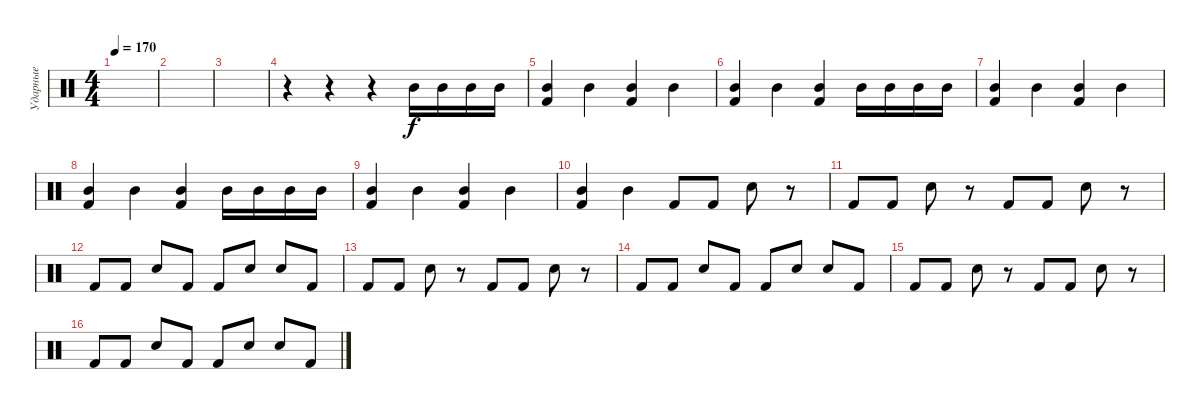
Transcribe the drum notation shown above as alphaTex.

\track ("Ударные" "Ударные") {instrument percussion}
\staff {score}
\articulation defaults
\ts (4 4)
\tempo 170
\clef neutral
\ks c
|
|
|
r.4 r.4 r.4 "Mid Tom (hit)".16 "Mid Tom (hit)".16 "Mid Tom (hit)".16 "Mid Tom (hit)".16 |
("Kick (hit) 2" "Mid Tom (hit)").4 "Mid Tom (hit)".4 ("Kick (hit) 2" "Mid Tom (hit)").4 "Mid Tom (hit)".4 |
("Kick (hit) 2" "Mid Tom (hit)").4 "Mid Tom (hit)".4 ("Kick (hit) 2" "Mid Tom (hit)").4 "Mid Tom (hit)".16 "Mid Tom (hit)".16 "Mid Tom (hit)".16 "Mid Tom (hit)".16 |
("Kick (hit) 2" "Mid Tom (hit)").4 "Mid Tom (hit)".4 ("Kick (hit) 2" "Mid Tom (hit)").4 "Mid Tom (hit)".4 |
("Kick (hit) 2" "Mid Tom (hit)").4 "Mid Tom (hit)".4 ("Kick (hit) 2" "Mid Tom (hit)").4 "Mid Tom (hit)".16 "Mid Tom (hit)".16 "Mid Tom (hit)".16 "Mid Tom (hit)".16 |
("Kick (hit) 2" "Mid Tom (hit)").4 "Mid Tom (hit)".4 ("Kick (hit) 2" "Mid Tom (hit)").4 "Mid Tom (hit)".4 |
("Kick (hit) 2" "Mid Tom (hit)").4 "Mid Tom (hit)".4 "Kick (hit) 2".8 "Kick (hit) 2".8 "Snare (hit) 2".8 r.8 |
"Kick (hit) 2".8 "Kick (hit) 2".8 "Snare (hit) 2".8 r.8 "Kick (hit) 2".8 "Kick (hit) 2".8 "Snare (hit) 2".8 r.8 |
"Kick (hit) 2".8 "Kick (hit) 2".8 "Snare (hit) 2".8 "Kick (hit) 2".8 "Kick (hit) 2".8 "Snare (hit) 2".8 "Snare (hit) 2".8 "Kick (hit) 2".8 |
"Kick (hit) 2".8 "Kick (hit) 2".8 "Snare (hit) 2".8 r.8 "Kick (hit) 2".8 "Kick (hit) 2".8 "Snare (hit) 2".8 r.8 |
"Kick (hit) 2".8 "Kick (hit) 2".8 "Snare (hit) 2".8 "Kick (hit) 2".8 "Kick (hit) 2".8 "Snare (hit) 2".8 "Snare (hit) 2".8 "Kick (hit) 2".8 |
"Kick (hit) 2".8 "Kick (hit) 2".8 "Snare (hit) 2".8 r.8 "Kick (hit) 2".8 "Kick (hit) 2".8 "Snare (hit) 2".8 r.8 |
"Kick (hit) 2".8 "Kick (hit) 2".8 "Snare (hit) 2".8 "Kick (hit) 2".8 "Kick (hit) 2".8 "Snare (hit) 2".8 "Snare (hit) 2".8 "Kick (hit) 2".8
